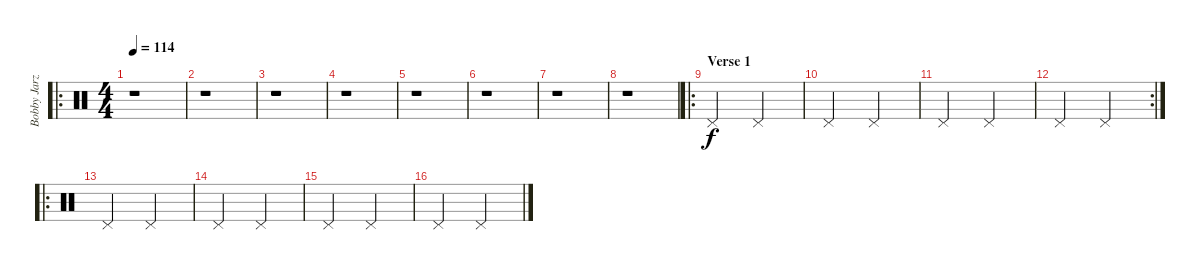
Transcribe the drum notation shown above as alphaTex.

\track ("Bobby Jarzombek" "Bobby Jarz") {instrument percussion}
\staff {score}
\articulation defaults
\ro
\ts (4 4)
\tempo 114
\clef neutral
\ks c
r.1{dy f} |
r.1 |
r.1 |
r.1 |
r.1 |
r.1 |
r.1 |
r.1 |
\ro
\section ("" "Verse 1")
"Pedal Hi-Hat (hit)".2 "Pedal Hi-Hat (hit)".2 |
"Pedal Hi-Hat (hit)".2 "Pedal Hi-Hat (hit)".2 |
"Pedal Hi-Hat (hit)".2 "Pedal Hi-Hat (hit)".2 |
\rc 2 "Pedal Hi-Hat (hit)".2 "Pedal Hi-Hat (hit)".2
|
\ro "Pedal Hi-Hat (hit)".2 "Pedal Hi-Hat (hit)".2
|
"Pedal Hi-Hat (hit)".2 "Pedal Hi-Hat (hit)".2 |
"Pedal Hi-Hat (hit)".2 "Pedal Hi-Hat (hit)".2 |
"Pedal Hi-Hat (hit)".2 "Pedal Hi-Hat (hit)".2
